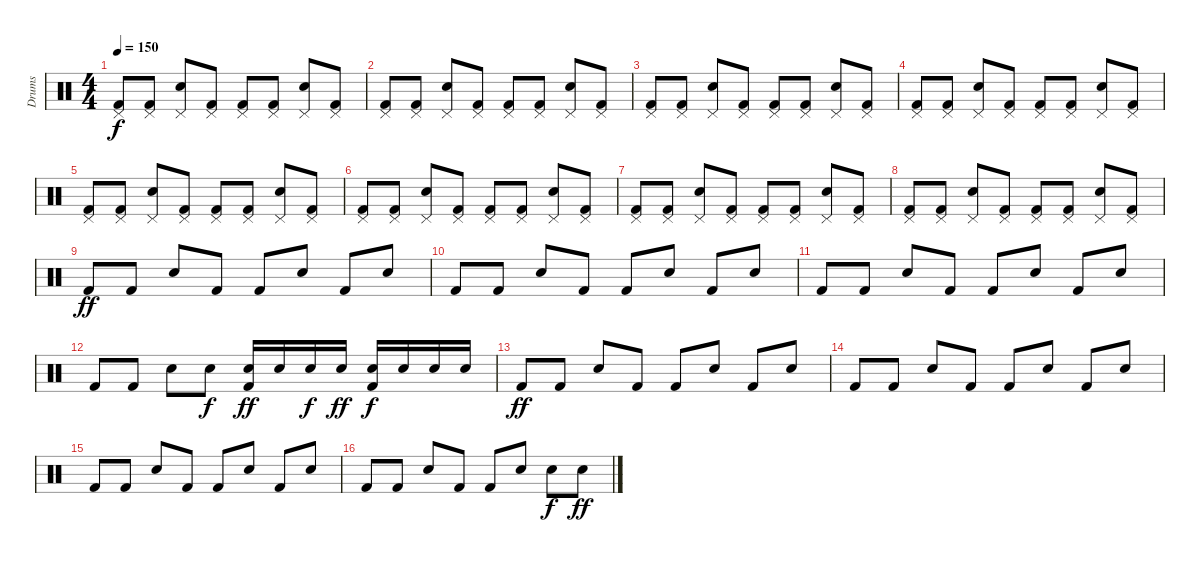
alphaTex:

\track ("Drums" "Drums") {instrument percussion}
\staff
\articulation defaults
\ts (4 4)
\tempo 150
\clef neutral
\ks c
("Pedal Hi-Hat (hit)" "Kick (hit) 2").8{dy f} ("Pedal Hi-Hat (hit)" "Kick (hit) 2").8 ("Pedal Hi-Hat (hit)" "Snare (hit) 2").8 ("Pedal Hi-Hat (hit)" "Kick (hit) 2").8 ("Pedal Hi-Hat (hit)" "Kick (hit) 2").8 ("Pedal Hi-Hat (hit)" "Kick (hit) 2").8 ("Pedal Hi-Hat (hit)" "Snare (hit) 2").8 ("Pedal Hi-Hat (hit)" "Kick (hit) 2").8 |
("Pedal Hi-Hat (hit)" "Kick (hit) 2").8 ("Pedal Hi-Hat (hit)" "Kick (hit) 2").8 ("Pedal Hi-Hat (hit)" "Snare (hit) 2").8 ("Pedal Hi-Hat (hit)" "Kick (hit) 2").8 ("Pedal Hi-Hat (hit)" "Kick (hit) 2").8 ("Pedal Hi-Hat (hit)" "Kick (hit) 2").8 ("Pedal Hi-Hat (hit)" "Snare (hit) 2").8 ("Pedal Hi-Hat (hit)" "Kick (hit) 2").8 |
("Pedal Hi-Hat (hit)" "Kick (hit) 2").8 ("Pedal Hi-Hat (hit)" "Kick (hit) 2").8 ("Pedal Hi-Hat (hit)" "Snare (hit) 2").8 ("Pedal Hi-Hat (hit)" "Kick (hit) 2").8 ("Pedal Hi-Hat (hit)" "Kick (hit) 2").8 ("Pedal Hi-Hat (hit)" "Kick (hit) 2").8 ("Pedal Hi-Hat (hit)" "Snare (hit) 2").8 ("Pedal Hi-Hat (hit)" "Kick (hit) 2").8 |
("Pedal Hi-Hat (hit)" "Kick (hit) 2").8 ("Pedal Hi-Hat (hit)" "Kick (hit) 2").8 ("Pedal Hi-Hat (hit)" "Snare (hit) 2").8 ("Pedal Hi-Hat (hit)" "Kick (hit) 2").8 ("Pedal Hi-Hat (hit)" "Kick (hit) 2").8 ("Pedal Hi-Hat (hit)" "Kick (hit) 2").8 ("Pedal Hi-Hat (hit)" "Snare (hit) 2").8 ("Pedal Hi-Hat (hit)" "Kick (hit) 2").8 |
("Pedal Hi-Hat (hit)" "Kick (hit) 2").8 ("Pedal Hi-Hat (hit)" "Kick (hit) 2").8 ("Pedal Hi-Hat (hit)" "Snare (hit) 2").8 ("Pedal Hi-Hat (hit)" "Kick (hit) 2").8 ("Pedal Hi-Hat (hit)" "Kick (hit) 2").8 ("Pedal Hi-Hat (hit)" "Kick (hit) 2").8 ("Pedal Hi-Hat (hit)" "Snare (hit) 2").8 ("Pedal Hi-Hat (hit)" "Kick (hit) 2").8 |
("Pedal Hi-Hat (hit)" "Kick (hit) 2").8 ("Pedal Hi-Hat (hit)" "Kick (hit) 2").8 ("Pedal Hi-Hat (hit)" "Snare (hit) 2").8 ("Pedal Hi-Hat (hit)" "Kick (hit) 2").8 ("Pedal Hi-Hat (hit)" "Kick (hit) 2").8 ("Pedal Hi-Hat (hit)" "Kick (hit) 2").8 ("Pedal Hi-Hat (hit)" "Snare (hit) 2").8 ("Pedal Hi-Hat (hit)" "Kick (hit) 2").8 |
("Pedal Hi-Hat (hit)" "Kick (hit) 2").8 ("Pedal Hi-Hat (hit)" "Kick (hit) 2").8 ("Pedal Hi-Hat (hit)" "Snare (hit) 2").8 ("Pedal Hi-Hat (hit)" "Kick (hit) 2").8 ("Pedal Hi-Hat (hit)" "Kick (hit) 2").8 ("Pedal Hi-Hat (hit)" "Kick (hit) 2").8 ("Pedal Hi-Hat (hit)" "Snare (hit) 2").8 ("Pedal Hi-Hat (hit)" "Kick (hit) 2").8 |
("Pedal Hi-Hat (hit)" "Kick (hit) 2").8 ("Pedal Hi-Hat (hit)" "Kick (hit) 2").8 ("Pedal Hi-Hat (hit)" "Snare (hit) 2").8 ("Pedal Hi-Hat (hit)" "Kick (hit) 2").8 ("Pedal Hi-Hat (hit)" "Kick (hit) 2").8 ("Pedal Hi-Hat (hit)" "Kick (hit) 2").8 ("Pedal Hi-Hat (hit)" "Snare (hit) 2").8 ("Pedal Hi-Hat (hit)" "Kick (hit) 2").8 |
"Kick (hit) 2".8{dy ff} "Kick (hit) 2".8 "Snare (hit) 2".8 "Kick (hit) 2".8 "Kick (hit) 2".8 "Snare (hit) 2".8 "Kick (hit) 2".8 "Snare (hit) 2".8 |
"Kick (hit) 2".8 "Kick (hit) 2".8 "Snare (hit) 2".8 "Kick (hit) 2".8 "Kick (hit) 2".8 "Snare (hit) 2".8 "Kick (hit) 2".8 "Snare (hit) 2".8 |
"Kick (hit) 2".8 "Kick (hit) 2".8 "Snare (hit) 2".8 "Kick (hit) 2".8 "Kick (hit) 2".8 "Snare (hit) 2".8 "Kick (hit) 2".8 "Snare (hit) 2".8 |
"Kick (hit) 2".8 "Kick (hit) 2".8 "Snare (hit) 2".8 "Snare (hit) 2".8{dy f} ("Snare (hit) 2" "Kick (hit) 2").16{dy ff} "Snare (hit) 2".16 "Snare (hit) 2".16{dy f} "Snare (hit) 2".16{dy ff} ("Snare (hit) 2" "Kick (hit) 2").16{dy f} "Snare (hit) 2".16 "Snare (hit) 2".16 "Snare (hit) 2".16 |
"Kick (hit) 2".8{dy ff} "Kick (hit) 2".8 "Snare (hit) 2".8 "Kick (hit) 2".8 "Kick (hit) 2".8 "Snare (hit) 2".8 "Kick (hit) 2".8 "Snare (hit) 2".8 |
"Kick (hit) 2".8 "Kick (hit) 2".8 "Snare (hit) 2".8 "Kick (hit) 2".8 "Kick (hit) 2".8 "Snare (hit) 2".8 "Kick (hit) 2".8 "Snare (hit) 2".8 |
"Kick (hit) 2".8 "Kick (hit) 2".8 "Snare (hit) 2".8 "Kick (hit) 2".8 "Kick (hit) 2".8 "Snare (hit) 2".8 "Kick (hit) 2".8 "Snare (hit) 2".8 |
"Kick (hit) 2".8 "Kick (hit) 2".8 "Snare (hit) 2".8 "Kick (hit) 2".8 "Kick (hit) 2".8 "Snare (hit) 2".8 "Snare (hit) 2".8{dy f} "Snare (hit) 2".8{dy ff}
